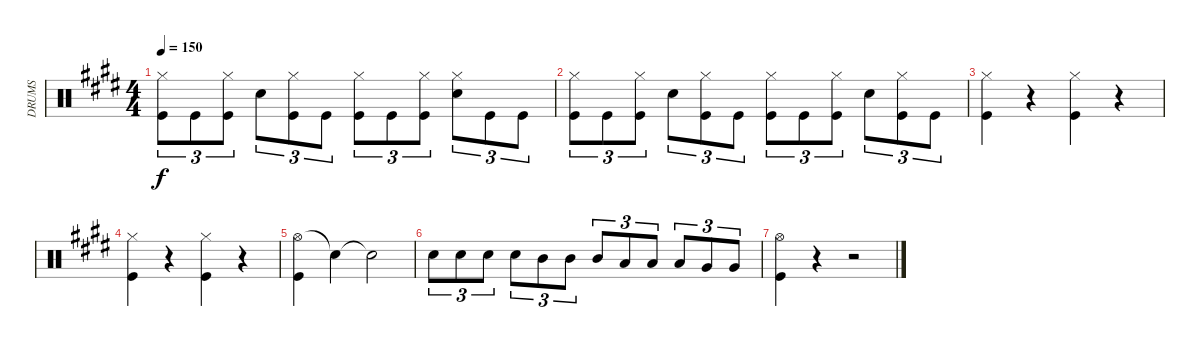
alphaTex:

\track ("DRUMS" "DRUMS") {instrument percussion}
\staff {score}
\articulation defaults
\ts (4 4)
\tempo 150
\clef neutral
\ks e
("Hi-Hat (closed)" "Kick (hit)").8{tu (3 2) dy f} "Kick (hit)".8{tu (3 2)} ("Hi-Hat (closed)" "Kick (hit)").8{tu (3 2)} "Snare (hit) 2".8{tu (3 2)} ("Hi-Hat (closed)" "Kick (hit)").8{tu (3 2)} "Kick (hit)".8{tu (3 2)} ("Hi-Hat (closed)" "Kick (hit)").8{tu (3 2)} "Kick (hit)".8{tu (3 2)} ("Hi-Hat (closed)" "Kick (hit)").8{tu (3 2)} ("Hi-Hat (closed)" "Snare (hit) 2").8{tu (3 2)} "Kick (hit)".8{tu (3 2)} "Kick (hit)".8{tu (3 2)} |
("Hi-Hat (closed)" "Kick (hit)").8{tu (3 2)} "Kick (hit)".8{tu (3 2)} ("Hi-Hat (closed)" "Kick (hit)").8{tu (3 2)} "Snare (hit) 2".8{tu (3 2)} ("Hi-Hat (closed)" "Kick (hit)").8{tu (3 2)} "Kick (hit)".8{tu (3 2)} ("Hi-Hat (closed)" "Kick (hit)").8{tu (3 2)} "Kick (hit)".8{tu (3 2)} ("Hi-Hat (closed)" "Kick (hit)").8{tu (3 2)} "Snare (hit) 2".8{tu (3 2)} ("Hi-Hat (closed)" "Kick (hit)").8{tu (3 2)} "Kick (hit)".8{tu (3 2)} |
("Hi-Hat (closed)" "Kick (hit)").4 r.4 ("Hi-Hat (closed)" "Kick (hit)").4 r.4 |
("Hi-Hat (closed)" "Kick (hit)").4 r.4 ("Hi-Hat (closed)" "Kick (hit)").4 r.4 |
("Hi-Hat (open)" "Kick (hit)").4 "Snare (hit)"{t}.4 "Snare (hit)"{t}.2 |
"Snare (hit) 2".8{tu (3 2)} "Snare (hit) 2".8{tu (3 2)} "Snare (hit) 2".8{tu (3 2)} "Snare (hit) 2".8{tu (3 2)} "Mid Tom (hit)".8{tu (3 2)} "Mid Tom (hit)".8{tu (3 2)} "Mid Tom (hit)".8{tu (3 2)} "Low Tom (hit)".8{tu (3 2)} "Low Tom (hit)".8{tu (3 2)} "Low Tom (hit)".8{tu (3 2)} "Very Low Tom (hit)".8{tu (3 2)} "Very Low Tom (hit)".8{tu (3 2)} |
("Hi-Hat (open)" "Kick (hit)").4 r.4 r.2
